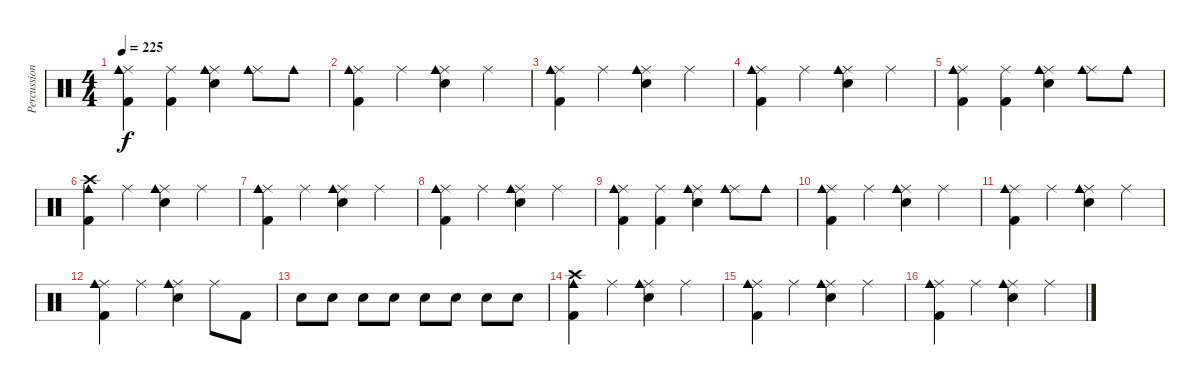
\track ("Percussion" "Percussion") {instrument percussion}
\staff {score}
\articulation defaults
\ts (4 4)
\tempo 225
\clef neutral
\ks c
("Ride (middle)" "Cowbell medium (hit)" "Kick (hit) 2").4{dy f} ("Ride (middle)" "Kick (hit) 2").4 ("Ride (middle)" "Cowbell medium (hit)" "Electric Snare (hit)").4 ("Ride (middle)" "Cowbell medium (hit)").8 "Cowbell medium (hit)".8 |
("Ride (middle)" "Cowbell medium (hit)" "Kick (hit) 2").4 "Ride (middle)".4 ("Ride (middle)" "Cowbell medium (hit)" "Electric Snare (hit)").4 "Ride (middle)".4 |
("Ride (middle)" "Cowbell medium (hit)" "Kick (hit) 2").4 "Ride (middle)".4 ("Ride (middle)" "Cowbell medium (hit)" "Electric Snare (hit)").4 "Ride (middle)".4 |
("Ride (middle)" "Cowbell medium (hit)" "Kick (hit) 2").4 "Ride (middle)".4 ("Ride (middle)" "Cowbell medium (hit)" "Electric Snare (hit)").4 "Ride (middle)".4 |
("Ride (middle)" "Cowbell medium (hit)" "Kick (hit) 2").4 ("Ride (middle)" "Kick (hit) 2").4 ("Ride (middle)" "Cowbell medium (hit)" "Electric Snare (hit)").4 ("Ride (middle)" "Cowbell medium (hit)").8 "Cowbell medium (hit)".8 |
("Crash high (hit)" "Cowbell medium (hit)" "Kick (hit) 2").4 "Ride (middle)".4 ("Ride (middle)" "Cowbell medium (hit)" "Electric Snare (hit)").4 "Ride (middle)".4 |
("Ride (middle)" "Cowbell medium (hit)" "Kick (hit) 2").4 "Ride (middle)".4 ("Ride (middle)" "Cowbell medium (hit)" "Electric Snare (hit)").4 "Ride (middle)".4 |
("Ride (middle)" "Cowbell medium (hit)" "Kick (hit) 2").4 "Ride (middle)".4 ("Ride (middle)" "Cowbell medium (hit)" "Electric Snare (hit)").4 "Ride (middle)".4 |
("Ride (middle)" "Cowbell medium (hit)" "Kick (hit) 2").4 ("Ride (middle)" "Kick (hit) 2").4 ("Ride (middle)" "Cowbell medium (hit)" "Electric Snare (hit)").4 ("Ride (middle)" "Cowbell medium (hit)").8 "Cowbell medium (hit)".8 |
("Ride (middle)" "Cowbell medium (hit)" "Kick (hit) 2").4 "Ride (middle)".4 ("Ride (middle)" "Cowbell medium (hit)" "Electric Snare (hit)").4 "Ride (middle)".4 |
("Ride (middle)" "Cowbell medium (hit)" "Kick (hit) 2").4 "Ride (middle)".4 ("Ride (middle)" "Cowbell medium (hit)" "Electric Snare (hit)").4 "Ride (middle)".4 |
("Ride (middle)" "Cowbell medium (hit)" "Kick (hit) 2").4 "Ride (middle)".4 ("Ride (middle)" "Cowbell medium (hit)" "Electric Snare (hit)").4 "Ride (middle)".8 "Kick (hit) 2".8 |
"Electric Snare (hit)".8 "Electric Snare (hit)".8 "Electric Snare (hit)".8 "Electric Snare (hit)".8 "Electric Snare (hit)".8 "Electric Snare (hit)".8 "Electric Snare (hit)".8 "Electric Snare (hit)".8 |
("Crash high (hit)" "Cowbell medium (hit)" "Kick (hit) 2").4 "Ride (middle)".4 ("Ride (middle)" "Cowbell medium (hit)" "Electric Snare (hit)").4 "Ride (middle)".4 |
("Ride (middle)" "Cowbell medium (hit)" "Kick (hit) 2").4 "Ride (middle)".4 ("Ride (middle)" "Cowbell medium (hit)" "Electric Snare (hit)").4 "Ride (middle)".4 |
("Ride (middle)" "Cowbell medium (hit)" "Kick (hit) 2").4 "Ride (middle)".4 ("Ride (middle)" "Cowbell medium (hit)" "Electric Snare (hit)").4 "Ride (middle)".4
